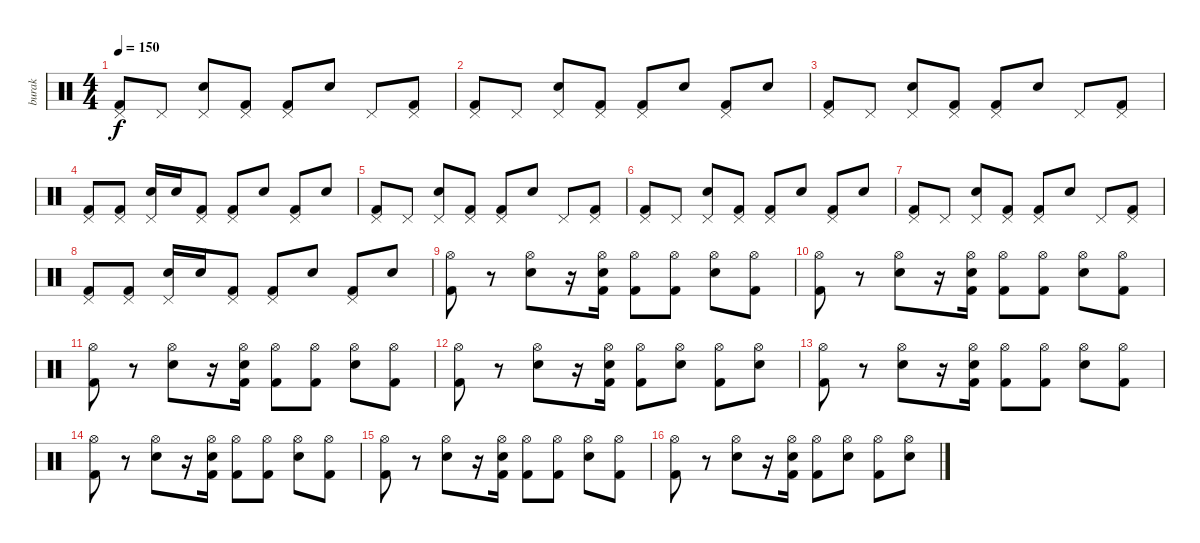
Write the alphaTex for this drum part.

\track ("burak" "burak") {instrument percussion}
\staff {score}
\articulation defaults
\ts (4 4)
\tempo 150
\clef neutral
\ks c
("Pedal Hi-Hat (hit)" "Kick (hit) 2").8{dy f} "Pedal Hi-Hat (hit)".8 ("Pedal Hi-Hat (hit)" "Electric Snare (hit)").8 ("Pedal Hi-Hat (hit)" "Kick (hit) 2").8 ("Pedal Hi-Hat (hit)" "Kick (hit) 2").8 "Electric Snare (hit)".8 "Pedal Hi-Hat (hit)".8 ("Pedal Hi-Hat (hit)" "Kick (hit) 2").8 |
("Pedal Hi-Hat (hit)" "Kick (hit) 2").8 "Pedal Hi-Hat (hit)".8 ("Pedal Hi-Hat (hit)" "Electric Snare (hit)").8 ("Pedal Hi-Hat (hit)" "Kick (hit) 2").8 ("Pedal Hi-Hat (hit)" "Kick (hit) 2").8 "Electric Snare (hit)".8 ("Pedal Hi-Hat (hit)" "Kick (hit) 2").8 "Electric Snare (hit)".8 |
("Pedal Hi-Hat (hit)" "Kick (hit) 2").8 "Pedal Hi-Hat (hit)".8 ("Pedal Hi-Hat (hit)" "Electric Snare (hit)").8 ("Pedal Hi-Hat (hit)" "Kick (hit) 2").8 ("Pedal Hi-Hat (hit)" "Kick (hit) 2").8 "Electric Snare (hit)".8 "Pedal Hi-Hat (hit)".8 ("Pedal Hi-Hat (hit)" "Kick (hit) 2").8 |
("Pedal Hi-Hat (hit)" "Kick (hit) 2").8 ("Pedal Hi-Hat (hit)" "Kick (hit) 2").8 ("Pedal Hi-Hat (hit)" "Electric Snare (hit)").16 "Electric Snare (hit)".16 ("Pedal Hi-Hat (hit)" "Kick (hit) 2").8 ("Pedal Hi-Hat (hit)" "Kick (hit) 2").8 "Electric Snare (hit)".8 ("Pedal Hi-Hat (hit)" "Kick (hit) 2").8 "Electric Snare (hit)".8 |
("Pedal Hi-Hat (hit)" "Kick (hit) 2").8 "Pedal Hi-Hat (hit)".8 ("Pedal Hi-Hat (hit)" "Electric Snare (hit)").8 ("Pedal Hi-Hat (hit)" "Kick (hit) 2").8 ("Pedal Hi-Hat (hit)" "Kick (hit) 2").8 "Electric Snare (hit)".8 "Pedal Hi-Hat (hit)".8 ("Pedal Hi-Hat (hit)" "Kick (hit) 2").8 |
("Pedal Hi-Hat (hit)" "Kick (hit) 2").8 "Pedal Hi-Hat (hit)".8 ("Pedal Hi-Hat (hit)" "Electric Snare (hit)").8 ("Pedal Hi-Hat (hit)" "Kick (hit) 2").8 ("Pedal Hi-Hat (hit)" "Kick (hit) 2").8 "Electric Snare (hit)".8 ("Pedal Hi-Hat (hit)" "Kick (hit) 2").8 "Electric Snare (hit)".8 |
("Pedal Hi-Hat (hit)" "Kick (hit) 2").8 "Pedal Hi-Hat (hit)".8 ("Pedal Hi-Hat (hit)" "Electric Snare (hit)").8 ("Pedal Hi-Hat (hit)" "Kick (hit) 2").8 ("Pedal Hi-Hat (hit)" "Kick (hit) 2").8 "Electric Snare (hit)".8 "Pedal Hi-Hat (hit)".8 ("Pedal Hi-Hat (hit)" "Kick (hit) 2").8 |
("Pedal Hi-Hat (hit)" "Kick (hit) 2").8 ("Pedal Hi-Hat (hit)" "Kick (hit) 2").8 ("Pedal Hi-Hat (hit)" "Electric Snare (hit)").16 "Electric Snare (hit)".16 ("Pedal Hi-Hat (hit)" "Kick (hit) 2").8 ("Pedal Hi-Hat (hit)" "Kick (hit) 2").8 "Electric Snare (hit)".8 ("Pedal Hi-Hat (hit)" "Kick (hit) 2").8 "Electric Snare (hit)".8 |
("Hi-Hat (open)" "Kick (hit) 2").8 r.8 ("Hi-Hat (open)" "Electric Snare (hit)").8 r.16 ("Hi-Hat (open)" "Kick (hit) 2" "Electric Snare (hit)").16 ("Hi-Hat (open)" "Kick (hit) 2").8 ("Hi-Hat (open)" "Kick (hit) 2").8 ("Hi-Hat (open)" "Electric Snare (hit)").8 ("Hi-Hat (open)" "Kick (hit) 2").8 |
("Hi-Hat (open)" "Kick (hit) 2").8 r.8 ("Hi-Hat (open)" "Electric Snare (hit)").8 r.16 ("Hi-Hat (open)" "Kick (hit) 2" "Electric Snare (hit)").16 ("Hi-Hat (open)" "Kick (hit) 2").8 ("Hi-Hat (open)" "Kick (hit) 2").8 ("Hi-Hat (open)" "Electric Snare (hit)").8 ("Hi-Hat (open)" "Kick (hit) 2").8 |
("Hi-Hat (open)" "Kick (hit) 2").8 r.8 ("Hi-Hat (open)" "Electric Snare (hit)").8 r.16 ("Hi-Hat (open)" "Kick (hit) 2" "Electric Snare (hit)").16 ("Hi-Hat (open)" "Kick (hit) 2").8 ("Hi-Hat (open)" "Kick (hit) 2").8 ("Hi-Hat (open)" "Electric Snare (hit)").8 ("Hi-Hat (open)" "Kick (hit) 2").8 |
("Hi-Hat (open)" "Kick (hit) 2").8 r.8 ("Hi-Hat (open)" "Electric Snare (hit)").8 r.16 ("Hi-Hat (open)" "Kick (hit) 2" "Electric Snare (hit)").16 ("Hi-Hat (open)" "Kick (hit) 2").8 ("Hi-Hat (open)" "Electric Snare (hit)").8 ("Hi-Hat (open)" "Kick (hit) 2").8 ("Hi-Hat (open)" "Electric Snare (hit)").8 |
("Hi-Hat (open)" "Kick (hit) 2").8 r.8 ("Hi-Hat (open)" "Electric Snare (hit)").8 r.16 ("Hi-Hat (open)" "Kick (hit) 2" "Electric Snare (hit)").16 ("Hi-Hat (open)" "Kick (hit) 2").8 ("Hi-Hat (open)" "Kick (hit) 2").8 ("Hi-Hat (open)" "Electric Snare (hit)").8 ("Hi-Hat (open)" "Kick (hit) 2").8 |
("Hi-Hat (open)" "Kick (hit) 2").8 r.8 ("Hi-Hat (open)" "Electric Snare (hit)").8 r.16 ("Hi-Hat (open)" "Kick (hit) 2" "Electric Snare (hit)").16 ("Hi-Hat (open)" "Kick (hit) 2").8 ("Hi-Hat (open)" "Kick (hit) 2").8 ("Hi-Hat (open)" "Electric Snare (hit)").8 ("Hi-Hat (open)" "Kick (hit) 2").8 |
("Hi-Hat (open)" "Kick (hit) 2").8 r.8 ("Hi-Hat (open)" "Electric Snare (hit)").8 r.16 ("Hi-Hat (open)" "Kick (hit) 2" "Electric Snare (hit)").16 ("Hi-Hat (open)" "Kick (hit) 2").8 ("Hi-Hat (open)" "Kick (hit) 2").8 ("Hi-Hat (open)" "Electric Snare (hit)").8 ("Hi-Hat (open)" "Kick (hit) 2").8 |
("Hi-Hat (open)" "Kick (hit) 2").8 r.8 ("Hi-Hat (open)" "Electric Snare (hit)").8 r.16 ("Hi-Hat (open)" "Kick (hit) 2" "Electric Snare (hit)").16 ("Hi-Hat (open)" "Kick (hit) 2").8 ("Hi-Hat (open)" "Electric Snare (hit)").8 ("Hi-Hat (open)" "Kick (hit) 2").8 ("Hi-Hat (open)" "Electric Snare (hit)").8
